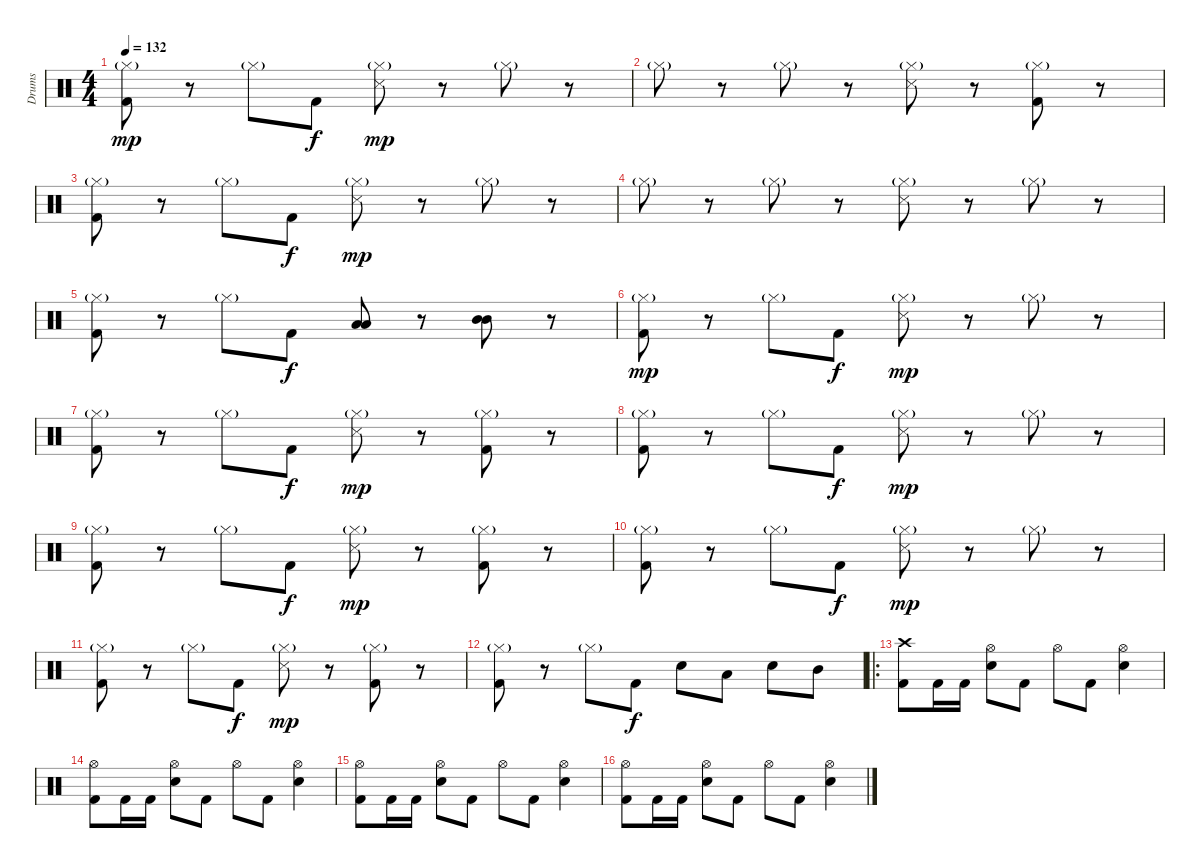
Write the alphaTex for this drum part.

\track ("Drums" "Drums") {instrument percussion}
\staff {score}
\articulation defaults
\ts (4 4)
\tempo 132
\clef neutral
\ks c
("Kick (hit) 2" "Hi-Hat (closed)"{g}).8{dy mp} r.8 "Hi-Hat (closed)"{g}.8 "Kick (hit) 2".8{dy f} ("Snare (side stick) 3" "Hi-Hat (closed)"{g}).8{dy mp} r.8 "Hi-Hat (closed)"{g}.8 r.8 |
"Hi-Hat (closed)"{g}.8 r.8 "Hi-Hat (closed)"{g}.8 r.8 ("Snare (side stick) 3" "Hi-Hat (closed)"{g}).8 r.8 ("Kick (hit) 2" "Hi-Hat (closed)"{g}).8 r.8 |
("Kick (hit) 2" "Hi-Hat (closed)"{g}).8 r.8 "Hi-Hat (closed)"{g}.8 "Kick (hit) 2".8{dy f} ("Snare (side stick) 3" "Hi-Hat (closed)"{g}).8{dy mp} r.8 "Hi-Hat (closed)"{g}.8 r.8 |
"Hi-Hat (closed)"{g}.8 r.8 "Hi-Hat (closed)"{g}.8 r.8 ("Snare (side stick) 3" "Hi-Hat (closed)"{g}).8 r.8 "Hi-Hat (closed)"{g}.8 r.8 |
("Kick (hit) 2" "Hi-Hat (closed)"{g}).8 r.8 "Hi-Hat (closed)"{g}.8 "Kick (hit) 2".8{dy f} ("Low Tom (hit)" "Low Tom (hit)").8 r.8 ("Mid Tom (hit)" "Mid Tom (hit)").8 r.8 |
("Kick (hit) 2" "Hi-Hat (closed)"{g}).8{dy mp} r.8 "Hi-Hat (closed)"{g}.8 "Kick (hit) 2".8{dy f} ("Snare (side stick) 3" "Hi-Hat (closed)"{g}).8{dy mp} r.8 "Hi-Hat (closed)"{g}.8 r.8 |
("Kick (hit) 2" "Hi-Hat (closed)"{g}).8 r.8 "Hi-Hat (closed)"{g}.8 "Kick (hit) 2".8{dy f} ("Snare (side stick) 3" "Hi-Hat (closed)"{g}).8{dy mp} r.8 ("Kick (hit) 2" "Hi-Hat (closed)"{g}).8 r.8 |
("Kick (hit) 2" "Hi-Hat (closed)"{g}).8 r.8 "Hi-Hat (closed)"{g}.8 "Kick (hit) 2".8{dy f} ("Snare (side stick) 3" "Hi-Hat (closed)"{g}).8{dy mp} r.8 "Hi-Hat (closed)"{g}.8 r.8 |
("Kick (hit) 2" "Hi-Hat (closed)"{g}).8 r.8 "Hi-Hat (closed)"{g}.8 "Kick (hit) 2".8{dy f} ("Snare (side stick) 3" "Hi-Hat (closed)"{g}).8{dy mp} r.8 ("Kick (hit) 2" "Hi-Hat (closed)"{g}).8 r.8 |
("Kick (hit) 2" "Hi-Hat (closed)"{g}).8 r.8 "Hi-Hat (closed)"{g}.8 "Kick (hit) 2".8{dy f} ("Snare (side stick) 3" "Hi-Hat (closed)"{g}).8{dy mp} r.8 "Hi-Hat (closed)"{g}.8 r.8 |
("Kick (hit) 2" "Hi-Hat (closed)"{g}).8 r.8 "Hi-Hat (closed)"{g}.8 "Kick (hit) 2".8{dy f} ("Snare (side stick) 3" "Hi-Hat (closed)"{g}).8{dy mp} r.8 ("Kick (hit) 2" "Hi-Hat (closed)"{g}).8 r.8 |
("Kick (hit) 2" "Hi-Hat (closed)"{g}).8 r.8 "Hi-Hat (closed)"{g}.8 "Kick (hit) 2".8{dy f} "Snare (hit) 2".8 "Low Tom (hit)".8 "Snare (hit) 2".8 "Mid Tom (hit)".8 |
\ro
("Kick (hit) 2" "Crash high (hit)").8 "Kick (hit) 2".16 "Kick (hit) 2".16 ("Snare (hit) 2" "Hi-Hat (open)").8 "Kick (hit) 2".8 "Hi-Hat (open)".8 "Kick (hit) 2".8 ("Snare (hit) 2" "Hi-Hat (open)").4 |
("Kick (hit) 2" "Hi-Hat (open)").8 "Kick (hit) 2".16 "Kick (hit) 2".16 ("Snare (hit) 2" "Hi-Hat (open)").8 "Kick (hit) 2".8 "Hi-Hat (open)".8 "Kick (hit) 2".8 ("Snare (hit) 2" "Hi-Hat (open)").4 |
("Kick (hit) 2" "Hi-Hat (open)").8 "Kick (hit) 2".16 "Kick (hit) 2".16 ("Snare (hit) 2" "Hi-Hat (open)").8 "Kick (hit) 2".8 "Hi-Hat (open)".8 "Kick (hit) 2".8 ("Snare (hit) 2" "Hi-Hat (open)").4 |
("Kick (hit) 2" "Hi-Hat (open)").8 "Kick (hit) 2".16 "Kick (hit) 2".16 ("Snare (hit) 2" "Hi-Hat (open)").8 "Kick (hit) 2".8 "Hi-Hat (open)".8 "Kick (hit) 2".8 ("Snare (hit) 2" "Hi-Hat (open)").4
